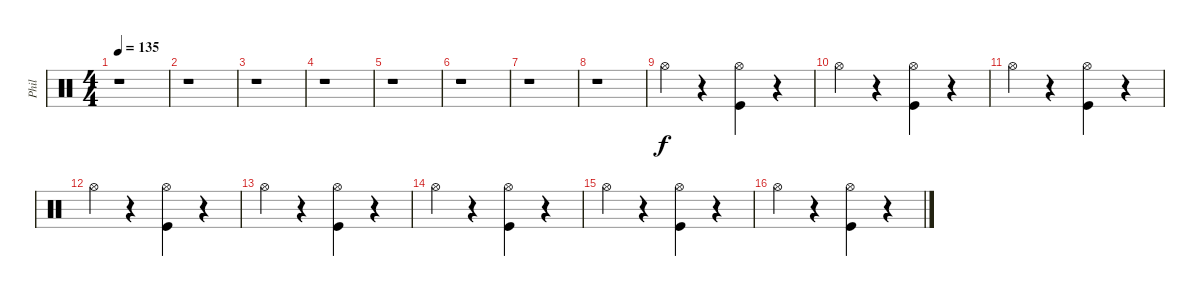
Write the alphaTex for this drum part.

\track ("Phil" "Phil") {instrument percussion}
\staff {score}
\articulation defaults
\ts (4 4)
\tempo 135
\clef neutral
\ks c
r.1{dy f} |
r.1 |
r.1 |
r.1 |
r.1 |
r.1 |
r.1 |
r.1 |
"Hi-Hat (open)".4 r.4 ("Kick (hit)" "Hi-Hat (open)").4 r.4 |
"Hi-Hat (open)".4 r.4 ("Kick (hit)" "Hi-Hat (open)").4 r.4 |
"Hi-Hat (open)".4 r.4 ("Kick (hit)" "Hi-Hat (open)").4 r.4 |
"Hi-Hat (open)".4 r.4 ("Kick (hit)" "Hi-Hat (open)").4 r.4 |
"Hi-Hat (open)".4 r.4 ("Kick (hit)" "Hi-Hat (open)").4 r.4 |
"Hi-Hat (open)".4 r.4 ("Kick (hit)" "Hi-Hat (open)").4 r.4 |
"Hi-Hat (open)".4 r.4 ("Kick (hit)" "Hi-Hat (open)").4 r.4 |
"Hi-Hat (open)".4 r.4 ("Kick (hit)" "Hi-Hat (open)").4 r.4
